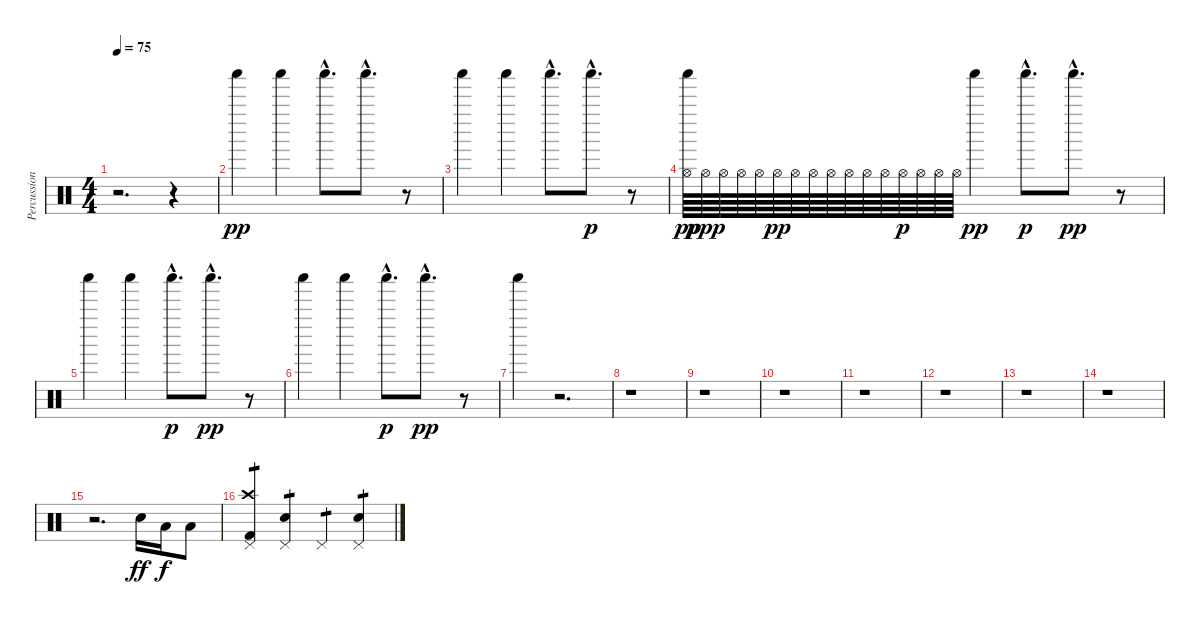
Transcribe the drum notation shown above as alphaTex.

\track ("Percussion" "Percussion") {instrument percussion}
\staff {score}
\articulation defaults
\ts (4 4)
\tempo 75
\clef neutral
\ks c
r.2{d dy pp} r.4 |
"Shaker (hit)".4 "Shaker (hit)".4 "Shaker (hit)"{hac}.8{d} "Shaker (hit)"{hac}.8{d} r.8 |
"Shaker (hit)".4 "Shaker (hit)".4 "Shaker (hit)"{hac}.8{d} "Shaker (hit)"{hac}.8{d dy p} r.8 |
("Hi-Hat (open)" "Shaker (hit)").64{dy pp} "Hi-Hat (open)".64{dy ppp} "Hi-Hat (open)".64 "Hi-Hat (open)".64 "Hi-Hat (open)".64 "Hi-Hat (open)".64{dy pp} "Hi-Hat (open)".64 "Hi-Hat (open)".64 "Hi-Hat (open)".64 "Hi-Hat (open)".64 "Hi-Hat (open)".64 "Hi-Hat (open)".64 "Hi-Hat (open)".64{dy p} "Hi-Hat (open)".64 "Hi-Hat (open)".64 "Hi-Hat (open)".64 "Shaker (hit)".4{dy pp} "Shaker (hit)"{hac}.8{d dy p} "Shaker (hit)"{hac}.8{d dy pp} r.8 |
"Shaker (hit)".4 "Shaker (hit)".4 "Shaker (hit)"{hac}.8{d dy p} "Shaker (hit)"{hac}.8{d dy pp} r.8 |
"Shaker (hit)".4 "Shaker (hit)".4 "Shaker (hit)"{hac}.8{d dy p} "Shaker (hit)"{hac}.8{d dy pp} r.8 |
"Shaker (hit)".4 r.2{d} |
r.1 |
r.1 |
r.1 |
r.1 |
r.1 |
r.1 |
r.1 |
r.2{d} "Electric Snare (hit)".16{dy ff} "Low Tom (hit)".16{dy f} "Low Floor Tom (hit)".8 |
("Kick (hit) 2" "Crash high (hit)" "Pedal Hi-Hat (hit)").4{tp 1} ("Electric Snare (hit)" "Pedal Hi-Hat (hit)").4{tp 1} "Pedal Hi-Hat (hit)".4{tp 1} ("Electric Snare (hit)" "Pedal Hi-Hat (hit)").4{tp 1}
